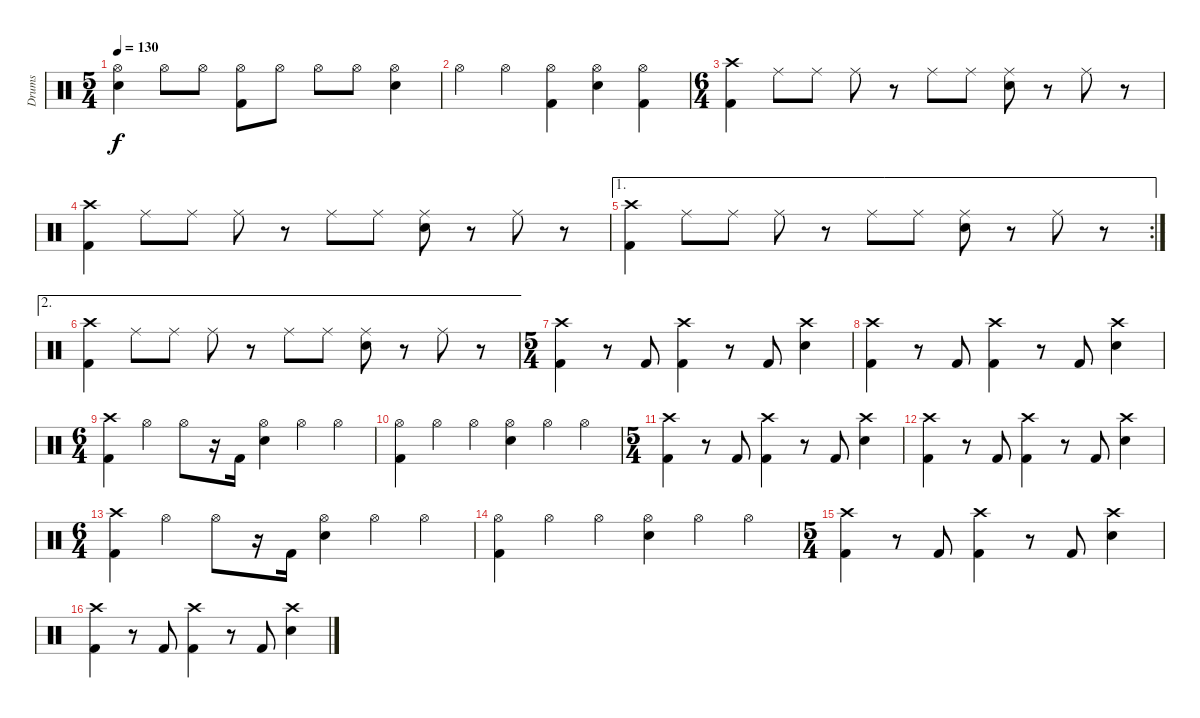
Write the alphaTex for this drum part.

\track ("Drums" "Drums") {instrument percussion}
\staff {score}
\articulation defaults
\ts (5 4)
\tempo 130
\clef neutral
\ks c
("Hi-Hat (open)" "Snare (hit) 2").4{dy f} "Hi-Hat (open)".8 "Hi-Hat (open)".8 ("Hi-Hat (open)" "Kick (hit) 2").8 "Hi-Hat (open)".8 "Hi-Hat (open)".8 "Hi-Hat (open)".8 ("Hi-Hat (open)" "Snare (hit) 2").4 |
"Hi-Hat (open)".4 "Hi-Hat (open)".4 ("Hi-Hat (open)" "Kick (hit) 2").4 ("Hi-Hat (open)" "Snare (hit) 2").4 ("Hi-Hat (open)" "Kick (hit) 2").4 |
\ts (6 4)
("Crash high (hit)" "Kick (hit) 2").4 "Ride (middle)".8 "Ride (middle)".8 "Ride (middle)".8 r.8 "Ride (middle)".8 "Ride (middle)".8 ("Ride (middle)" "Snare (hit) 2").8 r.8 "Ride (middle)".8 r.8 |
("Crash high (hit)" "Kick (hit) 2").4 "Ride (middle)".8 "Ride (middle)".8 "Ride (middle)".8 r.8 "Ride (middle)".8 "Ride (middle)".8 ("Ride (middle)" "Snare (hit) 2").8 r.8 "Ride (middle)".8 r.8 |
\ae 1
\rc 2
("Crash high (hit)" "Kick (hit) 2").4 "Ride (middle)".8 "Ride (middle)".8 "Ride (middle)".8 r.8 "Ride (middle)".8 "Ride (middle)".8 ("Ride (middle)" "Snare (hit) 2").8 r.8 "Ride (middle)".8 r.8 |
\ae 2
("Crash high (hit)" "Kick (hit) 2").4 "Ride (middle)".8 "Ride (middle)".8 "Ride (middle)".8 r.8 "Ride (middle)".8 "Ride (middle)".8 ("Ride (middle)" "Snare (hit) 2").8 r.8 "Ride (middle)".8 r.8 |
\ts (5 4)
("Crash high (hit)" "Kick (hit) 2").4 r.8 "Kick (hit) 2".8 ("Crash high (hit)" "Kick (hit) 2").4 r.8 "Kick (hit) 2".8 ("Crash high (hit)" "Snare (hit) 2").4 |
("Crash high (hit)" "Kick (hit) 2").4 r.8 "Kick (hit) 2".8 ("Crash high (hit)" "Kick (hit) 2").4 r.8 "Kick (hit) 2".8 ("Crash high (hit)" "Snare (hit) 2").4 |
\ts (6 4)
("Crash high (hit)" "Kick (hit) 2").4 "Hi-Hat (open)".4 "Hi-Hat (open)".8 r.16 "Kick (hit) 2".16 ("Hi-Hat (open)" "Snare (hit) 2").4 "Hi-Hat (open)".4 "Hi-Hat (open)".4 |
("Hi-Hat (open)" "Kick (hit) 2").4 "Hi-Hat (open)".4 "Hi-Hat (open)".4 ("Hi-Hat (open)" "Snare (hit) 2").4 "Hi-Hat (open)".4 "Hi-Hat (open)".4 |
\ts (5 4)
("Crash high (hit)" "Kick (hit) 2").4 r.8 "Kick (hit) 2".8 ("Crash high (hit)" "Kick (hit) 2").4 r.8 "Kick (hit) 2".8 ("Crash high (hit)" "Snare (hit) 2").4 |
("Crash high (hit)" "Kick (hit) 2").4 r.8 "Kick (hit) 2".8 ("Crash high (hit)" "Kick (hit) 2").4 r.8 "Kick (hit) 2".8 ("Crash high (hit)" "Snare (hit) 2").4 |
\ts (6 4)
("Crash high (hit)" "Kick (hit) 2").4 "Hi-Hat (open)".4 "Hi-Hat (open)".8 r.16 "Kick (hit) 2".16 ("Hi-Hat (open)" "Snare (hit) 2").4 "Hi-Hat (open)".4 "Hi-Hat (open)".4 |
("Hi-Hat (open)" "Kick (hit) 2").4 "Hi-Hat (open)".4 "Hi-Hat (open)".4 ("Hi-Hat (open)" "Snare (hit) 2").4 "Hi-Hat (open)".4 "Hi-Hat (open)".4 |
\ts (5 4)
("Crash high (hit)" "Kick (hit) 2").4 r.8 "Kick (hit) 2".8 ("Crash high (hit)" "Kick (hit) 2").4 r.8 "Kick (hit) 2".8 ("Crash high (hit)" "Snare (hit) 2").4 |
("Crash high (hit)" "Kick (hit) 2").4 r.8 "Kick (hit) 2".8 ("Crash high (hit)" "Kick (hit) 2").4 r.8 "Kick (hit) 2".8 ("Crash high (hit)" "Snare (hit) 2").4
